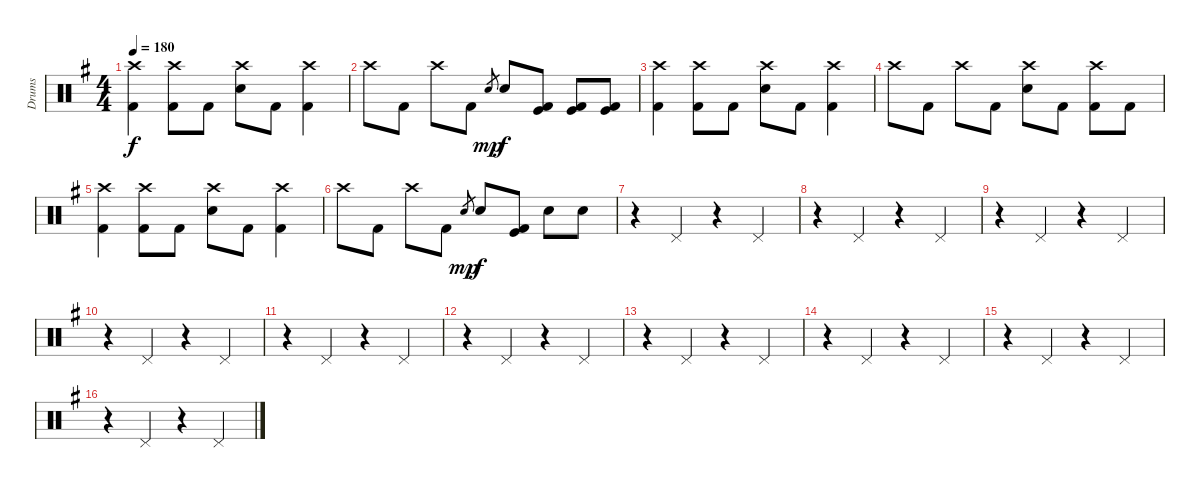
\track ("Drums" "Drums") {instrument percussion}
\staff {score}
\articulation defaults
\ts (4 4)
\tempo 180
\clef neutral
\ks g
("Crash high (hit)" "Kick (hit) 2").4{dy f} ("Crash high (hit)" "Kick (hit) 2").8 "Kick (hit) 2".8 ("Crash high (hit)" "Electric Snare (hit)").8 "Kick (hit) 2".8 ("Crash high (hit)" "Kick (hit) 2").4 |
"Crash high (hit)".8 "Kick (hit) 2".8 "Crash high (hit)".8 "Kick (hit) 2".8 "Electric Snare (hit)".8{gr dy mp} "Electric Snare (hit)".8{dy f} ("Kick (hit)" "Kick (hit) 2").8 ("Kick (hit)" "Kick (hit) 2").8 ("Kick (hit)" "Kick (hit) 2").8 |
("Crash high (hit)" "Kick (hit) 2").4 ("Crash high (hit)" "Kick (hit) 2").8 "Kick (hit) 2".8 ("Crash high (hit)" "Electric Snare (hit)").8 "Kick (hit) 2".8 ("Crash high (hit)" "Kick (hit) 2").4 |
"Crash high (hit)".8 "Kick (hit) 2".8 "Crash high (hit)".8 "Kick (hit) 2".8 ("Crash high (hit)" "Electric Snare (hit)").8 "Kick (hit) 2".8 ("Crash high (hit)" "Kick (hit) 2").8 "Kick (hit) 2".8 |
("Crash high (hit)" "Kick (hit) 2").4 ("Crash high (hit)" "Kick (hit) 2").8 "Kick (hit) 2".8 ("Crash high (hit)" "Electric Snare (hit)").8 "Kick (hit) 2".8 ("Crash high (hit)" "Kick (hit) 2").4 |
"Crash high (hit)".8 "Kick (hit) 2".8 "Crash high (hit)".8 "Kick (hit) 2".8 "Electric Snare (hit)".8{gr dy mp} "Electric Snare (hit)".8{dy f} ("Kick (hit)" "Kick (hit) 2").8 "Electric Snare (hit)".8 "Electric Snare (hit)".8 |
r.4 "Pedal Hi-Hat (hit)".4 r.4 "Pedal Hi-Hat (hit)".4 |
r.4 "Pedal Hi-Hat (hit)".4 r.4 "Pedal Hi-Hat (hit)".4 |
r.4 "Pedal Hi-Hat (hit)".4 r.4 "Pedal Hi-Hat (hit)".4 |
r.4 "Pedal Hi-Hat (hit)".4 r.4 "Pedal Hi-Hat (hit)".4 |
r.4 "Pedal Hi-Hat (hit)".4 r.4 "Pedal Hi-Hat (hit)".4 |
r.4 "Pedal Hi-Hat (hit)".4 r.4 "Pedal Hi-Hat (hit)".4 |
r.4 "Pedal Hi-Hat (hit)".4 r.4 "Pedal Hi-Hat (hit)".4 |
r.4 "Pedal Hi-Hat (hit)".4 r.4 "Pedal Hi-Hat (hit)".4 |
r.4 "Pedal Hi-Hat (hit)".4 r.4 "Pedal Hi-Hat (hit)".4 |
r.4 "Pedal Hi-Hat (hit)".4 r.4 "Pedal Hi-Hat (hit)".4
